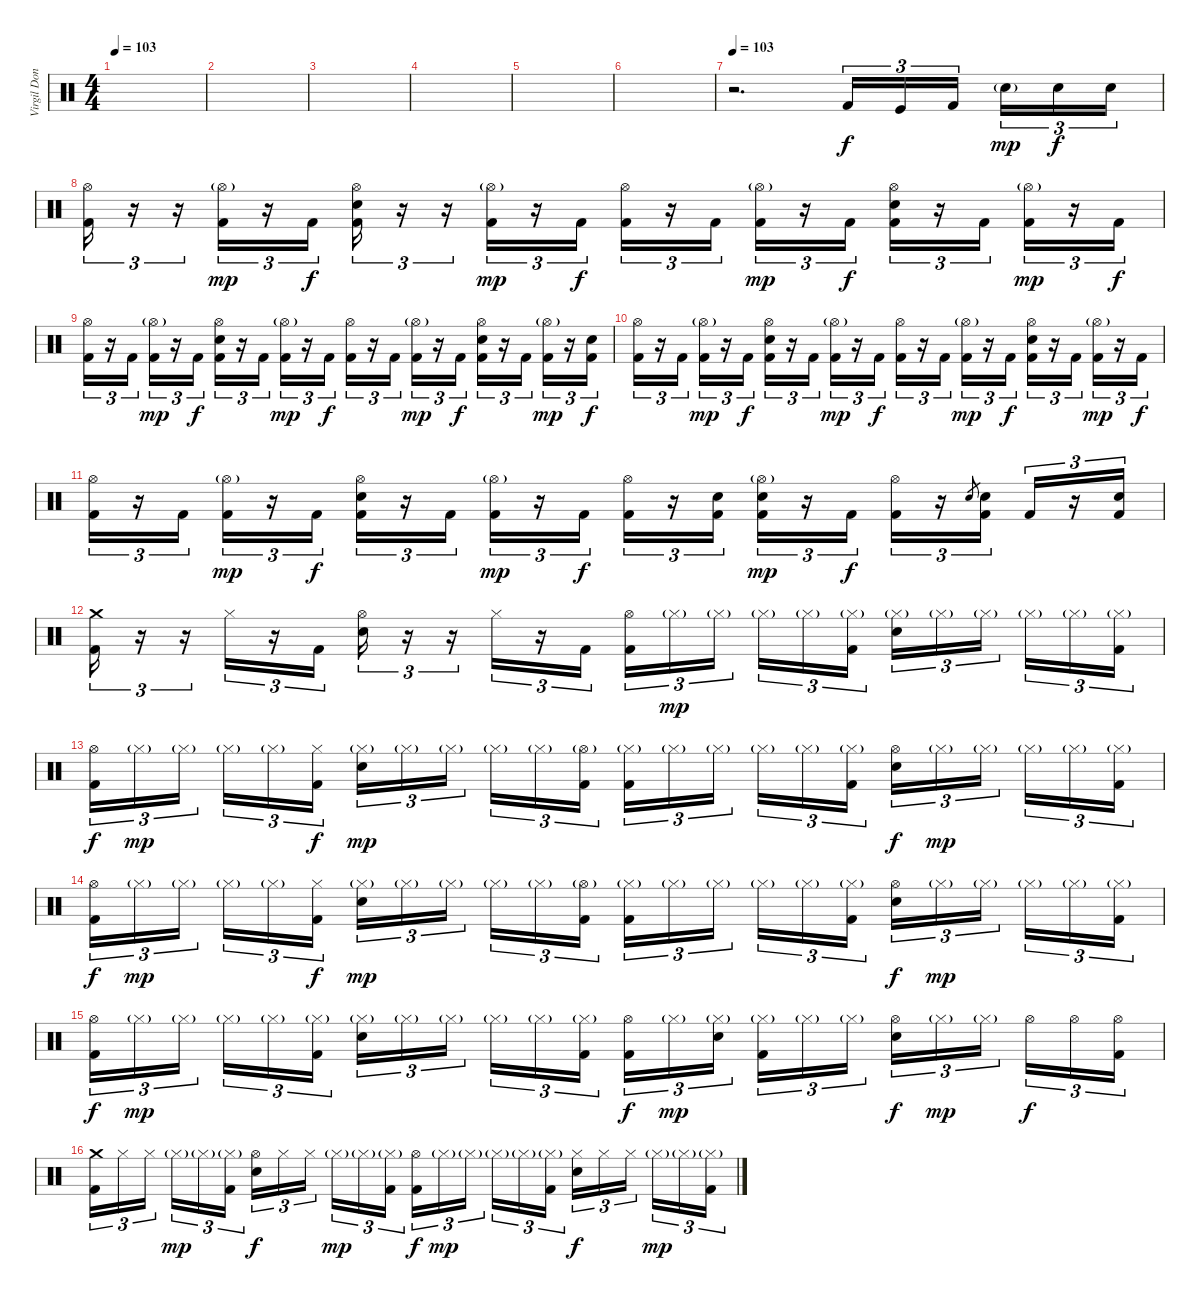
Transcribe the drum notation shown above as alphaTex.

\track ("Virgil Donati" "Virgil Don") {instrument percussion}
\staff {score}
\articulation defaults
\ts (4 4)
\tempo 103
\clef neutral
\ks c
|
|
|
|
|
|
\tempo 103
r.2{d} "Kick (hit) 2".16{tu (3 2)} "Kick (hit)".16{tu (3 2)} "Kick (hit) 2".16{tu (3 2)} "Snare (hit) 2"{g}.16{tu (3 2) dy mp} "Snare (hit) 2".16{tu (3 2) dy f} "Snare (hit) 2".16{tu (3 2)} |
("Hi-Hat (open)" "Kick (hit) 2").16{tu (3 2)} r.16{tu (3 2)} r.16{tu (3 2)} ("Hi-Hat (open)"{g} "Kick (hit) 2").16{tu (3 2) dy mp} r.16{tu (3 2)} "Kick (hit) 2".16{tu (3 2) dy f} ("Hi-Hat (open)" "Snare (hit) 2" "Kick (hit) 2").16{tu (3 2)} r.16{tu (3 2)} r.16{tu (3 2)} ("Hi-Hat (open)"{g} "Kick (hit) 2").16{tu (3 2) dy mp} r.16{tu (3 2)} "Kick (hit) 2".16{tu (3 2) dy f} ("Hi-Hat (open)" "Kick (hit) 2").16{tu (3 2)} r.16{tu (3 2)} "Kick (hit) 2".16{tu (3 2)} ("Hi-Hat (open)"{g} "Kick (hit) 2").16{tu (3 2) dy mp} r.16{tu (3 2)} "Kick (hit) 2".16{tu (3 2) dy f} ("Hi-Hat (open)" "Snare (hit) 2" "Kick (hit) 2").16{tu (3 2)} r.16{tu (3 2)} "Kick (hit) 2".16{tu (3 2)} ("Hi-Hat (open)"{g} "Kick (hit) 2").16{tu (3 2) dy mp} r.16{tu (3 2)} "Kick (hit) 2".16{tu (3 2) dy f} |
("Hi-Hat (open)" "Kick (hit) 2").16{tu (3 2)} r.16{tu (3 2)} "Kick (hit) 2".16{tu (3 2)} ("Hi-Hat (open)"{g} "Kick (hit) 2").16{tu (3 2) dy mp} r.16{tu (3 2)} "Kick (hit) 2".16{tu (3 2) dy f} ("Hi-Hat (open)" "Snare (hit) 2" "Kick (hit) 2").16{tu (3 2)} r.16{tu (3 2)} "Kick (hit) 2".16{tu (3 2)} ("Hi-Hat (open)"{g} "Kick (hit) 2").16{tu (3 2) dy mp} r.16{tu (3 2)} "Kick (hit) 2".16{tu (3 2) dy f} ("Hi-Hat (open)" "Kick (hit) 2").16{tu (3 2)} r.16{tu (3 2)} "Kick (hit) 2".16{tu (3 2)} ("Hi-Hat (open)"{g} "Kick (hit) 2").16{tu (3 2) dy mp} r.16{tu (3 2)} "Kick (hit) 2".16{tu (3 2) dy f} ("Hi-Hat (open)" "Snare (hit) 2" "Kick (hit) 2").16{tu (3 2)} r.16{tu (3 2)} "Kick (hit) 2".16{tu (3 2)} ("Hi-Hat (open)"{g} "Kick (hit) 2").16{tu (3 2) dy mp} r.16{tu (3 2)} ("Snare (hit) 2" "Kick (hit) 2").16{tu (3 2) dy f} |
("Hi-Hat (open)" "Kick (hit) 2").16{tu (3 2)} r.16{tu (3 2)} "Kick (hit) 2".16{tu (3 2)} ("Hi-Hat (open)"{g} "Kick (hit) 2").16{tu (3 2) dy mp} r.16{tu (3 2)} "Kick (hit) 2".16{tu (3 2) dy f} ("Hi-Hat (open)" "Snare (hit) 2" "Kick (hit) 2").16{tu (3 2)} r.16{tu (3 2)} "Kick (hit) 2".16{tu (3 2)} ("Hi-Hat (open)"{g} "Kick (hit) 2").16{tu (3 2) dy mp} r.16{tu (3 2)} "Kick (hit) 2".16{tu (3 2) dy f} ("Hi-Hat (open)" "Kick (hit) 2").16{tu (3 2)} r.16{tu (3 2)} "Kick (hit) 2".16{tu (3 2)} ("Hi-Hat (open)"{g} "Kick (hit) 2").16{tu (3 2) dy mp} r.16{tu (3 2)} "Kick (hit) 2".16{tu (3 2) dy f} ("Hi-Hat (open)" "Snare (hit) 2" "Kick (hit) 2").16{tu (3 2)} r.16{tu (3 2)} "Kick (hit) 2".16{tu (3 2)} ("Hi-Hat (open)"{g} "Kick (hit) 2").16{tu (3 2) dy mp} r.16{tu (3 2)} "Kick (hit) 2".16{tu (3 2) dy f} |
("Hi-Hat (open)" "Kick (hit) 2").16{tu (3 2)} r.16{tu (3 2)} "Kick (hit) 2".16{tu (3 2)} ("Hi-Hat (open)"{g} "Kick (hit) 2").16{tu (3 2) dy mp} r.16{tu (3 2)} "Kick (hit) 2".16{tu (3 2) dy f} ("Hi-Hat (open)" "Snare (hit) 2" "Kick (hit) 2").16{tu (3 2)} r.16{tu (3 2)} "Kick (hit) 2".16{tu (3 2)} ("Hi-Hat (open)"{g} "Kick (hit) 2").16{tu (3 2) dy mp} r.16{tu (3 2)} "Kick (hit) 2".16{tu (3 2) dy f} ("Hi-Hat (open)" "Kick (hit) 2").16{tu (3 2)} r.16{tu (3 2)} ("Snare (hit) 2" "Kick (hit) 2").16{tu (3 2)} ("Hi-Hat (open)"{g} "Snare (hit) 2" "Kick (hit) 2").16{tu (3 2) dy mp} r.16{tu (3 2)} "Kick (hit) 2".16{tu (3 2) dy f} ("Hi-Hat (open)" "Kick (hit) 2").16{tu (3 2)} r.16{tu (3 2)} "Snare (hit) 2".8{gr} ("Snare (hit) 2" "Kick (hit) 2").16{tu (3 2)} "Kick (hit) 2".16{tu (3 2)} r.16{tu (3 2)} ("Snare (hit) 2" "Kick (hit) 2").16{tu (3 2)} |
("Crash medium (hit)" "Kick (hit) 2").16{tu (3 2)} r.16{tu (3 2)} r.16{tu (3 2)} "Hi-Hat (closed)".16{tu (3 2)} r.16{tu (3 2)} "Kick (hit) 2".16{tu (3 2)} ("Hi-Hat (open)" "Snare (hit) 2").16{tu (3 2)} r.16{tu (3 2)} r.16{tu (3 2)} "Hi-Hat (closed)".16{tu (3 2)} r.16{tu (3 2)} "Kick (hit) 2".16{tu (3 2)} ("Hi-Hat (open)" "Kick (hit) 2").16{tu (3 2)} "Hi-Hat (closed)"{g}.16{tu (3 2) dy mp} "Hi-Hat (closed)"{g}.16{tu (3 2)} "Hi-Hat (closed)"{g}.16{tu (3 2)} "Hi-Hat (closed)"{g}.16{tu (3 2)} ("Hi-Hat (closed)"{g} "Kick (hit) 2").16{tu (3 2)} ("Hi-Hat (closed)"{g} "Snare (hit) 2").16{tu (3 2)} "Hi-Hat (closed)"{g}.16{tu (3 2)} "Hi-Hat (closed)"{g}.16{tu (3 2)} "Hi-Hat (closed)"{g}.16{tu (3 2)} "Hi-Hat (closed)"{g}.16{tu (3 2)} ("Hi-Hat (closed)"{g} "Kick (hit) 2").16{tu (3 2)} |
("Hi-Hat (open)" "Kick (hit) 2").16{tu (3 2) dy f} "Hi-Hat (closed)"{g}.16{tu (3 2) dy mp} "Hi-Hat (closed)"{g}.16{tu (3 2)} "Hi-Hat (closed)"{g}.16{tu (3 2)} "Hi-Hat (closed)"{g}.16{tu (3 2)} ("Hi-Hat (closed)" "Kick (hit) 2").16{tu (3 2) dy f} ("Hi-Hat (closed)"{g} "Snare (hit) 2").16{tu (3 2) dy mp} "Hi-Hat (closed)"{g}.16{tu (3 2)} "Hi-Hat (closed)"{g}.16{tu (3 2)} "Hi-Hat (closed)"{g}.16{tu (3 2)} "Hi-Hat (closed)"{g}.16{tu (3 2)} ("Hi-Hat (open)"{g} "Kick (hit) 2").16{tu (3 2)} ("Hi-Hat (closed)"{g} "Kick (hit) 2").16{tu (3 2)} "Hi-Hat (closed)"{g}.16{tu (3 2)} "Hi-Hat (closed)"{g}.16{tu (3 2)} "Hi-Hat (closed)"{g}.16{tu (3 2)} "Hi-Hat (closed)"{g}.16{tu (3 2)} ("Hi-Hat (closed)"{g} "Kick (hit) 2").16{tu (3 2)} ("Hi-Hat (open)" "Snare (hit) 2").16{tu (3 2) dy f} "Hi-Hat (closed)"{g}.16{tu (3 2) dy mp} "Hi-Hat (closed)"{g}.16{tu (3 2)} "Hi-Hat (closed)"{g}.16{tu (3 2)} "Hi-Hat (closed)"{g}.16{tu (3 2)} ("Hi-Hat (closed)"{g} "Kick (hit) 2").16{tu (3 2)} |
("Hi-Hat (open)" "Kick (hit) 2").16{tu (3 2) dy f} "Hi-Hat (closed)"{g}.16{tu (3 2) dy mp} "Hi-Hat (closed)"{g}.16{tu (3 2)} "Hi-Hat (closed)"{g}.16{tu (3 2)} "Hi-Hat (closed)"{g}.16{tu (3 2)} ("Hi-Hat (closed)" "Kick (hit) 2").16{tu (3 2) dy f} ("Hi-Hat (closed)"{g} "Snare (hit) 2").16{tu (3 2) dy mp} "Hi-Hat (closed)"{g}.16{tu (3 2)} "Hi-Hat (closed)"{g}.16{tu (3 2)} "Hi-Hat (closed)"{g}.16{tu (3 2)} "Hi-Hat (closed)"{g}.16{tu (3 2)} ("Hi-Hat (open)"{g} "Kick (hit) 2").16{tu (3 2)} ("Hi-Hat (closed)"{g} "Kick (hit) 2").16{tu (3 2)} "Hi-Hat (closed)"{g}.16{tu (3 2)} "Hi-Hat (closed)"{g}.16{tu (3 2)} "Hi-Hat (closed)"{g}.16{tu (3 2)} "Hi-Hat (closed)"{g}.16{tu (3 2)} ("Hi-Hat (closed)"{g} "Kick (hit) 2").16{tu (3 2)} ("Hi-Hat (open)" "Snare (hit) 2").16{tu (3 2) dy f} "Hi-Hat (closed)"{g}.16{tu (3 2) dy mp} "Hi-Hat (closed)"{g}.16{tu (3 2)} "Hi-Hat (closed)"{g}.16{tu (3 2)} "Hi-Hat (closed)"{g}.16{tu (3 2)} ("Hi-Hat (closed)"{g} "Kick (hit) 2").16{tu (3 2)} |
("Hi-Hat (open)" "Kick (hit) 2").16{tu (3 2) dy f} "Hi-Hat (closed)"{g}.16{tu (3 2) dy mp} "Hi-Hat (closed)"{g}.16{tu (3 2)} "Hi-Hat (closed)"{g}.16{tu (3 2)} "Hi-Hat (closed)"{g}.16{tu (3 2)} ("Hi-Hat (closed)"{g} "Kick (hit) 2").16{tu (3 2)} ("Hi-Hat (closed)"{g} "Snare (hit) 2").16{tu (3 2)} "Hi-Hat (closed)"{g}.16{tu (3 2)} "Hi-Hat (closed)"{g}.16{tu (3 2)} "Hi-Hat (closed)"{g}.16{tu (3 2)} "Hi-Hat (closed)"{g}.16{tu (3 2)} ("Hi-Hat (closed)"{g} "Kick (hit) 2").16{tu (3 2)} ("Hi-Hat (open)" "Kick (hit) 2").16{tu (3 2) dy f} "Hi-Hat (closed)"{g}.16{tu (3 2) dy mp} ("Hi-Hat (closed)"{g} "Snare (hit) 2").16{tu (3 2)} ("Hi-Hat (closed)"{g} "Kick (hit) 2").16{tu (3 2)} "Hi-Hat (closed)"{g}.16{tu (3 2)} "Hi-Hat (closed)"{g}.16{tu (3 2)} ("Hi-Hat (open)" "Snare (hit) 2").16{tu (3 2) dy f} "Hi-Hat (closed)"{g}.16{tu (3 2) dy mp} "Hi-Hat (closed)"{g}.16{tu (3 2)} "Hi-Hat (open)".16{tu (3 2) dy f} "Hi-Hat (open)".16{tu (3 2)} ("Hi-Hat (open)" "Kick (hit) 2").16{tu (3 2)} |
("Crash medium (hit)" "Kick (hit) 2").16{tu (3 2)} "Hi-Hat (closed)".16{tu (3 2)} "Hi-Hat (closed)".16{tu (3 2)} "Hi-Hat (closed)"{g}.16{tu (3 2) dy mp} "Hi-Hat (closed)"{g}.16{tu (3 2)} ("Hi-Hat (closed)"{g} "Kick (hit) 2").16{tu (3 2)} ("Hi-Hat (open)" "Snare (hit) 2").16{tu (3 2) dy f} "Hi-Hat (closed)".16{tu (3 2)} "Hi-Hat (closed)".16{tu (3 2)} "Hi-Hat (closed)"{g}.16{tu (3 2) dy mp} "Hi-Hat (closed)"{g}.16{tu (3 2)} ("Hi-Hat (closed)"{g} "Kick (hit) 2").16{tu (3 2)} ("Hi-Hat (open)" "Kick (hit) 2").16{tu (3 2) dy f} "Hi-Hat (closed)"{g}.16{tu (3 2) dy mp} "Hi-Hat (closed)"{g}.16{tu (3 2)} "Hi-Hat (closed)"{g}.16{tu (3 2)} "Hi-Hat (closed)"{g}.16{tu (3 2)} ("Hi-Hat (closed)"{g} "Kick (hit) 2").16{tu (3 2)} ("Hi-Hat (closed)" "Snare (hit) 2").16{tu (3 2) dy f} "Hi-Hat (closed)".16{tu (3 2)} "Hi-Hat (closed)".16{tu (3 2)} "Hi-Hat (closed)"{g}.16{tu (3 2) dy mp} "Hi-Hat (closed)"{g}.16{tu (3 2)} ("Hi-Hat (closed)"{g} "Kick (hit) 2").16{tu (3 2)}
